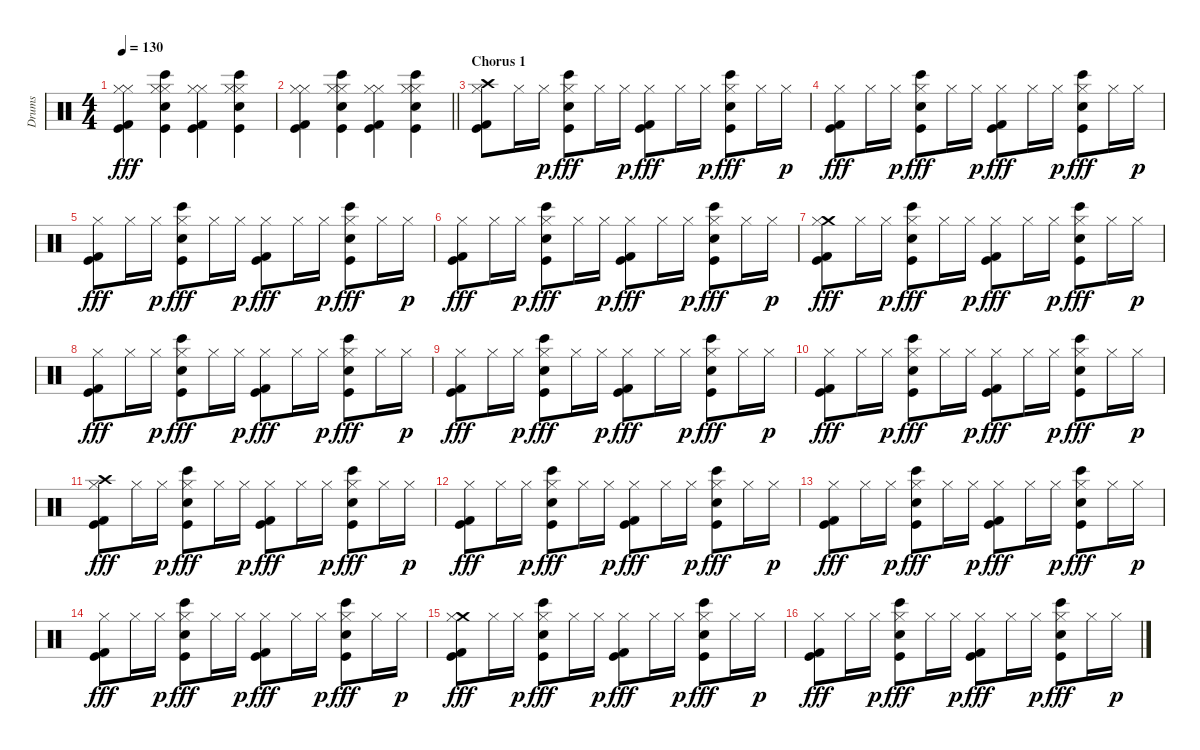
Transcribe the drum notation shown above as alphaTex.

\track ("Drums" "Drums") {instrument percussion}
\staff {score}
\articulation defaults
\ts (4 4)
\tempo 130
\clef neutral
\ks c
("Hi-Hat (closed)" "Hi-Hat (closed)" "Kick (hit) 2" "Kick (hit)").4{dy fff} ("Hi-Hat (closed)" "Bongo High (hit)" "Hi-Hat (closed)" "Snare (hit) 2" "Kick (hit)").4 ("Hi-Hat (closed)" "Hi-Hat (closed)" "Kick (hit) 2" "Kick (hit)").4 ("Hi-Hat (closed)" "Bongo High (hit)" "Hi-Hat (closed)" "Snare (hit) 2" "Kick (hit)").4 |
\barLineRight lightlight
("Hi-Hat (closed)" "Hi-Hat (closed)" "Kick (hit) 2" "Kick (hit)").4 ("Hi-Hat (closed)" "Bongo High (hit)" "Hi-Hat (closed)" "Snare (hit) 2" "Kick (hit)").4 ("Hi-Hat (closed)" "Hi-Hat (closed)" "Kick (hit) 2" "Kick (hit)").4 ("Hi-Hat (closed)" "Bongo High (hit)" "Hi-Hat (closed)" "Snare (hit) 2" "Kick (hit)").4 |
\section ("" "Chorus 1")
("Crash high (hit)" "Hi-Hat (closed)" "Kick (hit) 2" "Kick (hit)").8 "Hi-Hat (closed)".16 "Hi-Hat (closed)".16{dy p} ("Bongo High (hit)" "Hi-Hat (closed)" "Snare (hit) 2" "Kick (hit)").8{dy fff} "Hi-Hat (closed)".16 "Hi-Hat (closed)".16{dy p} ("Hi-Hat (closed)" "Kick (hit) 2" "Kick (hit)").8{dy fff} "Hi-Hat (closed)".16 "Hi-Hat (closed)".16{dy p} ("Bongo High (hit)" "Hi-Hat (closed)" "Snare (hit) 2" "Kick (hit)").8{dy fff} "Hi-Hat (closed)".16 "Hi-Hat (closed)".16{dy p} |
("Hi-Hat (closed)" "Kick (hit) 2" "Kick (hit)").8{dy fff} "Hi-Hat (closed)".16 "Hi-Hat (closed)".16{dy p} ("Bongo High (hit)" "Hi-Hat (closed)" "Snare (hit) 2" "Kick (hit)").8{dy fff} "Hi-Hat (closed)".16 "Hi-Hat (closed)".16{dy p} ("Hi-Hat (closed)" "Kick (hit) 2" "Kick (hit)").8{dy fff} "Hi-Hat (closed)".16 "Hi-Hat (closed)".16{dy p} ("Bongo High (hit)" "Hi-Hat (closed)" "Snare (hit) 2" "Kick (hit)").8{dy fff} "Hi-Hat (closed)".16 "Hi-Hat (closed)".16{dy p} |
("Hi-Hat (closed)" "Kick (hit) 2" "Kick (hit)").8{dy fff} "Hi-Hat (closed)".16 "Hi-Hat (closed)".16{dy p} ("Bongo High (hit)" "Hi-Hat (closed)" "Snare (hit) 2" "Kick (hit)").8{dy fff} "Hi-Hat (closed)".16 "Hi-Hat (closed)".16{dy p} ("Hi-Hat (closed)" "Kick (hit) 2" "Kick (hit)").8{dy fff} "Hi-Hat (closed)".16 "Hi-Hat (closed)".16{dy p} ("Bongo High (hit)" "Hi-Hat (closed)" "Snare (hit) 2" "Kick (hit)").8{dy fff} "Hi-Hat (closed)".16 "Hi-Hat (closed)".16{dy p} |
("Hi-Hat (closed)" "Kick (hit) 2" "Kick (hit)").8{dy fff} "Hi-Hat (closed)".16 "Hi-Hat (closed)".16{dy p} ("Bongo High (hit)" "Hi-Hat (closed)" "Snare (hit) 2" "Kick (hit)").8{dy fff} "Hi-Hat (closed)".16 "Hi-Hat (closed)".16{dy p} ("Hi-Hat (closed)" "Kick (hit) 2" "Kick (hit)").8{dy fff} "Hi-Hat (closed)".16 "Hi-Hat (closed)".16{dy p} ("Bongo High (hit)" "Hi-Hat (closed)" "Snare (hit) 2" "Kick (hit)").8{dy fff} "Hi-Hat (closed)".16 "Hi-Hat (closed)".16{dy p} |
("Crash medium (hit)" "Hi-Hat (closed)" "Kick (hit) 2" "Kick (hit)").8{dy fff} "Hi-Hat (closed)".16 "Hi-Hat (closed)".16{dy p} ("Bongo High (hit)" "Hi-Hat (closed)" "Snare (hit) 2" "Kick (hit)").8{dy fff} "Hi-Hat (closed)".16 "Hi-Hat (closed)".16{dy p} ("Hi-Hat (closed)" "Kick (hit) 2" "Kick (hit)").8{dy fff} "Hi-Hat (closed)".16 "Hi-Hat (closed)".16{dy p} ("Bongo High (hit)" "Hi-Hat (closed)" "Snare (hit) 2" "Kick (hit)").8{dy fff} "Hi-Hat (closed)".16 "Hi-Hat (closed)".16{dy p} |
("Hi-Hat (closed)" "Kick (hit) 2" "Kick (hit)").8{dy fff} "Hi-Hat (closed)".16 "Hi-Hat (closed)".16{dy p} ("Bongo High (hit)" "Hi-Hat (closed)" "Snare (hit) 2" "Kick (hit)").8{dy fff} "Hi-Hat (closed)".16 "Hi-Hat (closed)".16{dy p} ("Hi-Hat (closed)" "Kick (hit) 2" "Kick (hit)").8{dy fff} "Hi-Hat (closed)".16 "Hi-Hat (closed)".16{dy p} ("Bongo High (hit)" "Hi-Hat (closed)" "Snare (hit) 2" "Kick (hit)").8{dy fff} "Hi-Hat (closed)".16 "Hi-Hat (closed)".16{dy p} |
("Hi-Hat (closed)" "Kick (hit) 2" "Kick (hit)").8{dy fff} "Hi-Hat (closed)".16 "Hi-Hat (closed)".16{dy p} ("Bongo High (hit)" "Hi-Hat (closed)" "Snare (hit) 2" "Kick (hit)").8{dy fff} "Hi-Hat (closed)".16 "Hi-Hat (closed)".16{dy p} ("Hi-Hat (closed)" "Kick (hit) 2" "Kick (hit)").8{dy fff} "Hi-Hat (closed)".16 "Hi-Hat (closed)".16{dy p} ("Bongo High (hit)" "Hi-Hat (closed)" "Snare (hit) 2" "Kick (hit)").8{dy fff} "Hi-Hat (closed)".16 "Hi-Hat (closed)".16{dy p} |
("Hi-Hat (closed)" "Kick (hit) 2" "Kick (hit)").8{dy fff} "Hi-Hat (closed)".16 "Hi-Hat (closed)".16{dy p} ("Bongo High (hit)" "Hi-Hat (closed)" "Snare (hit) 2" "Kick (hit)").8{dy fff} "Hi-Hat (closed)".16 "Hi-Hat (closed)".16{dy p} ("Hi-Hat (closed)" "Kick (hit) 2" "Kick (hit)").8{dy fff} "Hi-Hat (closed)".16 "Hi-Hat (closed)".16{dy p} ("Bongo High (hit)" "Hi-Hat (closed)" "Snare (hit) 2" "Kick (hit)").8{dy fff} "Hi-Hat (closed)".16 "Hi-Hat (closed)".16{dy p} |
("Crash high (hit)" "Hi-Hat (closed)" "Kick (hit) 2" "Kick (hit)").8{dy fff} "Hi-Hat (closed)".16 "Hi-Hat (closed)".16{dy p} ("Bongo High (hit)" "Hi-Hat (closed)" "Snare (hit) 2" "Kick (hit)").8{dy fff} "Hi-Hat (closed)".16 "Hi-Hat (closed)".16{dy p} ("Hi-Hat (closed)" "Kick (hit) 2" "Kick (hit)").8{dy fff} "Hi-Hat (closed)".16 "Hi-Hat (closed)".16{dy p} ("Bongo High (hit)" "Hi-Hat (closed)" "Snare (hit) 2" "Kick (hit)").8{dy fff} "Hi-Hat (closed)".16 "Hi-Hat (closed)".16{dy p} |
("Hi-Hat (closed)" "Kick (hit) 2" "Kick (hit)").8{dy fff} "Hi-Hat (closed)".16 "Hi-Hat (closed)".16{dy p} ("Bongo High (hit)" "Hi-Hat (closed)" "Snare (hit) 2" "Kick (hit)").8{dy fff} "Hi-Hat (closed)".16 "Hi-Hat (closed)".16{dy p} ("Hi-Hat (closed)" "Kick (hit) 2" "Kick (hit)").8{dy fff} "Hi-Hat (closed)".16 "Hi-Hat (closed)".16{dy p} ("Bongo High (hit)" "Hi-Hat (closed)" "Snare (hit) 2" "Kick (hit)").8{dy fff} "Hi-Hat (closed)".16 "Hi-Hat (closed)".16{dy p} |
("Hi-Hat (closed)" "Kick (hit) 2" "Kick (hit)").8{dy fff} "Hi-Hat (closed)".16 "Hi-Hat (closed)".16{dy p} ("Bongo High (hit)" "Hi-Hat (closed)" "Snare (hit) 2" "Kick (hit)").8{dy fff} "Hi-Hat (closed)".16 "Hi-Hat (closed)".16{dy p} ("Hi-Hat (closed)" "Kick (hit) 2" "Kick (hit)").8{dy fff} "Hi-Hat (closed)".16 "Hi-Hat (closed)".16{dy p} ("Bongo High (hit)" "Hi-Hat (closed)" "Snare (hit) 2" "Kick (hit)").8{dy fff} "Hi-Hat (closed)".16 "Hi-Hat (closed)".16{dy p} |
("Hi-Hat (closed)" "Kick (hit) 2" "Kick (hit)").8{dy fff} "Hi-Hat (closed)".16 "Hi-Hat (closed)".16{dy p} ("Bongo High (hit)" "Hi-Hat (closed)" "Snare (hit) 2" "Kick (hit)").8{dy fff} "Hi-Hat (closed)".16 "Hi-Hat (closed)".16{dy p} ("Hi-Hat (closed)" "Kick (hit) 2" "Kick (hit)").8{dy fff} "Hi-Hat (closed)".16 "Hi-Hat (closed)".16{dy p} ("Bongo High (hit)" "Hi-Hat (closed)" "Snare (hit) 2" "Kick (hit)").8{dy fff} "Hi-Hat (closed)".16 "Hi-Hat (closed)".16{dy p} |
("Crash medium (hit)" "Hi-Hat (closed)" "Kick (hit) 2" "Kick (hit)").8{dy fff} "Hi-Hat (closed)".16 "Hi-Hat (closed)".16{dy p} ("Bongo High (hit)" "Hi-Hat (closed)" "Snare (hit) 2" "Kick (hit)").8{dy fff} "Hi-Hat (closed)".16 "Hi-Hat (closed)".16{dy p} ("Hi-Hat (closed)" "Kick (hit) 2" "Kick (hit)").8{dy fff} "Hi-Hat (closed)".16 "Hi-Hat (closed)".16{dy p} ("Bongo High (hit)" "Hi-Hat (closed)" "Snare (hit) 2" "Kick (hit)").8{dy fff} "Hi-Hat (closed)".16 "Hi-Hat (closed)".16{dy p} |
("Hi-Hat (closed)" "Kick (hit) 2" "Kick (hit)").8{dy fff} "Hi-Hat (closed)".16 "Hi-Hat (closed)".16{dy p} ("Bongo High (hit)" "Hi-Hat (closed)" "Snare (hit) 2" "Kick (hit)").8{dy fff} "Hi-Hat (closed)".16 "Hi-Hat (closed)".16{dy p} ("Hi-Hat (closed)" "Kick (hit) 2" "Kick (hit)").8{dy fff} "Hi-Hat (closed)".16 "Hi-Hat (closed)".16{dy p} ("Bongo High (hit)" "Hi-Hat (closed)" "Snare (hit) 2" "Kick (hit)").8{dy fff} "Hi-Hat (closed)".16 "Hi-Hat (closed)".16{dy p}
